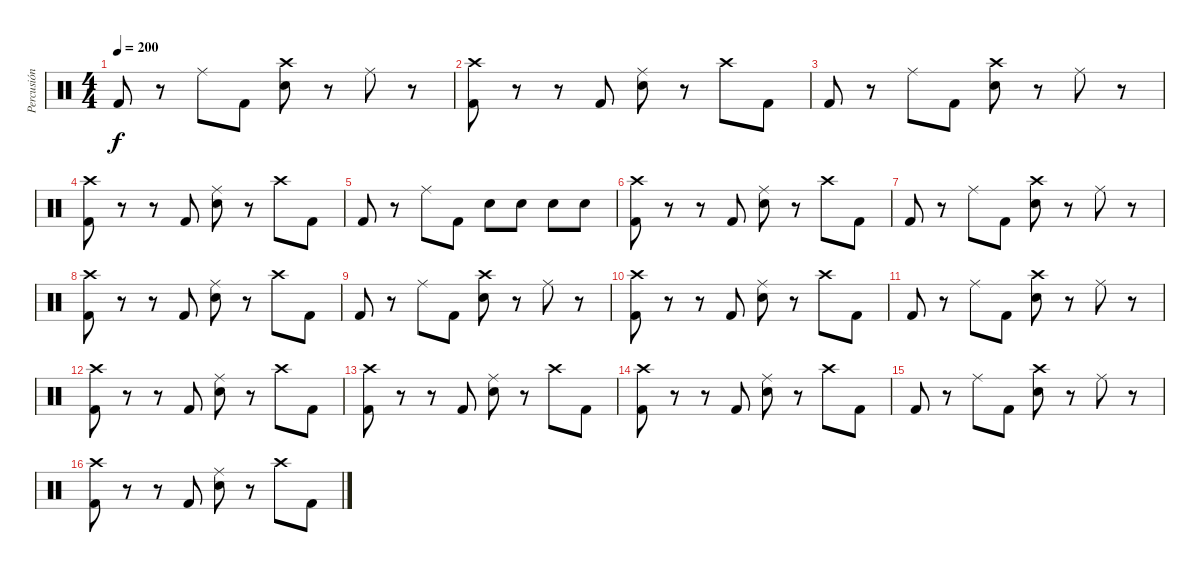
\track ("Percusión" "Percusión") {instrument percussion}
\staff {score}
\articulation defaults
\ts (4 4)
\tempo 200
\clef neutral
\ks c "Kick (hit) 2".8{dy f}
r.8 "Ride (middle)".8 "Kick (hit) 2".8 ("Crash high (hit)" "Electric Snare (hit)").8 r.8 "Ride (middle)".8 r.8 |
("Crash high (hit)" "Kick (hit) 2").8 r.8 r.8 "Kick (hit) 2".8 ("Ride (middle)" "Electric Snare (hit)").8 r.8 "Crash high (hit)".8 "Kick (hit) 2".8 |
"Kick (hit) 2".8 r.8 "Ride (middle)".8 "Kick (hit) 2".8 ("Crash high (hit)" "Electric Snare (hit)").8 r.8 "Ride (middle)".8 r.8 |
("Crash high (hit)" "Kick (hit) 2").8 r.8 r.8 "Kick (hit) 2".8 ("Ride (middle)" "Electric Snare (hit)").8 r.8 "Crash high (hit)".8 "Kick (hit) 2".8 |
"Kick (hit) 2".8 r.8 "Ride (middle)".8 "Kick (hit) 2".8 "Electric Snare (hit)".8 "Electric Snare (hit)".8 "Electric Snare (hit)".8 "Electric Snare (hit)".8 |
("Crash high (hit)" "Kick (hit) 2").8 r.8 r.8 "Kick (hit) 2".8 ("Ride (middle)" "Electric Snare (hit)").8 r.8 "Crash high (hit)".8 "Kick (hit) 2".8 |
"Kick (hit) 2".8 r.8 "Ride (middle)".8 "Kick (hit) 2".8 ("Crash high (hit)" "Electric Snare (hit)").8 r.8 "Ride (middle)".8 r.8 |
("Crash high (hit)" "Kick (hit) 2").8 r.8 r.8 "Kick (hit) 2".8 ("Ride (middle)" "Electric Snare (hit)").8 r.8 "Crash high (hit)".8 "Kick (hit) 2".8 |
"Kick (hit) 2".8 r.8 "Ride (middle)".8 "Kick (hit) 2".8 ("Crash high (hit)" "Electric Snare (hit)").8 r.8 "Ride (middle)".8 r.8 |
("Crash high (hit)" "Kick (hit) 2").8 r.8 r.8 "Kick (hit) 2".8 ("Ride (middle)" "Electric Snare (hit)").8 r.8 "Crash high (hit)".8 "Kick (hit) 2".8 |
"Kick (hit) 2".8 r.8 "Ride (middle)".8 "Kick (hit) 2".8 ("Crash high (hit)" "Electric Snare (hit)").8 r.8 "Ride (middle)".8 r.8 |
("Crash high (hit)" "Kick (hit) 2").8 r.8 r.8 "Kick (hit) 2".8 ("Ride (middle)" "Electric Snare (hit)").8 r.8 "Crash high (hit)".8 "Kick (hit) 2".8 |
("Crash high (hit)" "Kick (hit) 2").8 r.8 r.8 "Kick (hit) 2".8 ("Ride (middle)" "Electric Snare (hit)").8 r.8 "Crash high (hit)".8 "Kick (hit) 2".8 |
("Crash high (hit)" "Kick (hit) 2").8 r.8 r.8 "Kick (hit) 2".8 ("Ride (middle)" "Electric Snare (hit)").8 r.8 "Crash high (hit)".8 "Kick (hit) 2".8 |
"Kick (hit) 2".8 r.8 "Ride (middle)".8 "Kick (hit) 2".8 ("Crash high (hit)" "Electric Snare (hit)").8 r.8 "Ride (middle)".8 r.8 |
("Crash high (hit)" "Kick (hit) 2").8 r.8 r.8 "Kick (hit) 2".8 ("Ride (middle)" "Electric Snare (hit)").8 r.8 "Crash high (hit)".8 "Kick (hit) 2".8
